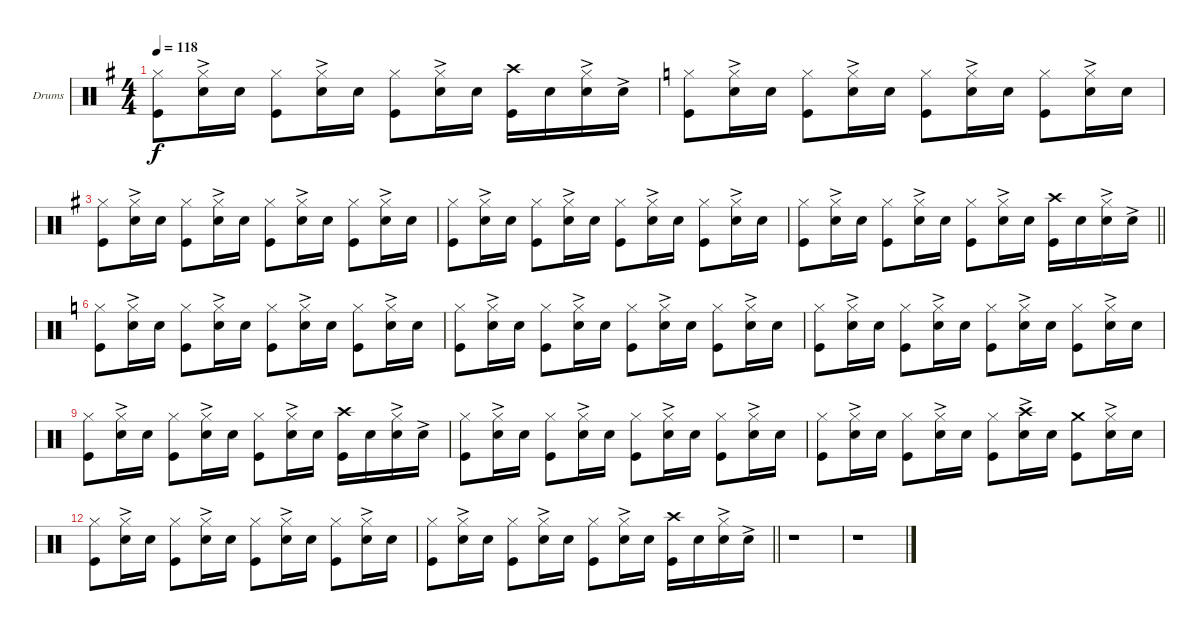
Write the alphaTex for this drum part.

\bracketExtendMode nobrackets
\firstSystemTrackNameOrientation horizontal
\otherSystemsTrackNameOrientation horizontal
\defaultBarNumberDisplay FirstOfSystem
\track ("Drumkit" "Drums") {instrument percussion}
\staff {score}
\articulation defaults
\ts (4 4)
\tempo 118
\clef neutral
\scale
0.309392
\ks g
("Kick (hit)" "Hi-Hat (closed)").8{dy f} ("Snare (hit) 2"{ac} "Hi-Hat (closed)").16 "Snare (hit) 2".16 ("Kick (hit)" "Hi-Hat (closed)").8 ("Snare (hit) 2"{ac} "Hi-Hat (closed)").16 "Snare (hit) 2".16 ("Kick (hit)" "Hi-Hat (closed)").8 ("Snare (hit) 2"{ac} "Hi-Hat (closed)").16 "Snare (hit) 2".16 ("Kick (hit)" "Crash high (hit)").16 "Snare (hit) 2".16 ("Snare (hit) 2"{ac} "Hi-Hat (closed)").16 "Snare (hit) 2"{ac}.16 |
\scale
0.34555
\ks c
("Kick (hit)" "Hi-Hat (closed)").8 ("Snare (hit) 2"{ac} "Hi-Hat (closed)").16 "Snare (hit) 2".16 ("Kick (hit)" "Hi-Hat (closed)").8 ("Snare (hit) 2"{ac} "Hi-Hat (closed)").16 "Snare (hit) 2".16 ("Kick (hit)" "Hi-Hat (closed)").8 ("Snare (hit) 2"{ac} "Hi-Hat (closed)").16 "Snare (hit) 2".16 ("Kick (hit)" "Hi-Hat (closed)").8 ("Snare (hit) 2"{ac} "Hi-Hat (closed)").16 "Snare (hit) 2".16 |
\scale
0.361257
\ks g
("Kick (hit)" "Hi-Hat (closed)").8 ("Snare (hit) 2"{ac} "Hi-Hat (closed)").16 "Snare (hit) 2".16 ("Kick (hit)" "Hi-Hat (closed)").8 ("Snare (hit) 2"{ac} "Hi-Hat (closed)").16 "Snare (hit) 2".16 ("Kick (hit)" "Hi-Hat (closed)").8 ("Snare (hit) 2"{ac} "Hi-Hat (closed)").16 "Snare (hit) 2".16 ("Kick (hit)" "Hi-Hat (closed)").8 ("Snare (hit) 2"{ac} "Hi-Hat (closed)").16 "Snare (hit) 2".16 |
\scale
0.293194 ("Kick (hit)" "Hi-Hat (closed)").8 ("Snare (hit) 2"{ac} "Hi-Hat (closed)").16 "Snare (hit) 2".16 ("Kick (hit)" "Hi-Hat (closed)").8 ("Snare (hit) 2"{ac} "Hi-Hat (closed)").16 "Snare (hit) 2".16 ("Kick (hit)" "Hi-Hat (closed)").8 ("Snare (hit) 2"{ac} "Hi-Hat (closed)").16 "Snare (hit) 2".16 ("Kick (hit)" "Hi-Hat (closed)").8 ("Snare (hit) 2"{ac} "Hi-Hat (closed)").16 "Snare (hit) 2".16 |
\scale
0.314607
\barLineRight lightlight
("Kick (hit)" "Hi-Hat (closed)").8 ("Snare (hit) 2"{ac} "Hi-Hat (closed)").16 "Snare (hit) 2".16 ("Kick (hit)" "Hi-Hat (closed)").8 ("Snare (hit) 2"{ac} "Hi-Hat (closed)").16 "Snare (hit) 2".16 ("Kick (hit)" "Hi-Hat (closed)").8 ("Snare (hit) 2"{ac} "Hi-Hat (closed)").16 "Snare (hit) 2".16 ("Kick (hit)" "Crash high (hit)").16 "Snare (hit) 2".16 ("Snare (hit) 2"{ac} "Hi-Hat (closed)").16 "Snare (hit) 2"{ac}.16 |
\scale
0.370787
\ks c
("Kick (hit)" "Hi-Hat (closed)").8 ("Snare (hit) 2"{ac} "Hi-Hat (closed)").16 "Snare (hit) 2".16 ("Kick (hit)" "Hi-Hat (closed)").8 ("Snare (hit) 2"{ac} "Hi-Hat (closed)").16 "Snare (hit) 2".16 ("Kick (hit)" "Hi-Hat (closed)").8 ("Snare (hit) 2"{ac} "Hi-Hat (closed)").16 "Snare (hit) 2".16 ("Kick (hit)" "Hi-Hat (closed)").8 ("Snare (hit) 2"{ac} "Hi-Hat (closed)").16 "Snare (hit) 2".16 |
\scale
0.314607 ("Kick (hit)" "Hi-Hat (closed)").8 ("Snare (hit) 2"{ac} "Hi-Hat (closed)").16 "Snare (hit) 2".16 ("Kick (hit)" "Hi-Hat (closed)").8 ("Snare (hit) 2"{ac} "Hi-Hat (closed)").16 "Snare (hit) 2".16 ("Kick (hit)" "Hi-Hat (closed)").8 ("Snare (hit) 2"{ac} "Hi-Hat (closed)").16 "Snare (hit) 2".16 ("Kick (hit)" "Hi-Hat (closed)").8 ("Snare (hit) 2"{ac} "Hi-Hat (closed)").16 "Snare (hit) 2".16 |
\scale
0.333333 ("Kick (hit)" "Hi-Hat (closed)").8 ("Snare (hit) 2"{ac} "Hi-Hat (closed)").16 "Snare (hit) 2".16 ("Kick (hit)" "Hi-Hat (closed)").8 ("Snare (hit) 2"{ac} "Hi-Hat (closed)").16 "Snare (hit) 2".16 ("Kick (hit)" "Hi-Hat (closed)").8 ("Snare (hit) 2"{ac} "Hi-Hat (closed)").16 "Snare (hit) 2".16 ("Kick (hit)" "Hi-Hat (closed)").8 ("Snare (hit) 2"{ac} "Hi-Hat (closed)").16 "Snare (hit) 2".16 |
\scale
0.333333 ("Kick (hit)" "Hi-Hat (closed)").8 ("Snare (hit) 2"{ac} "Hi-Hat (closed)").16 "Snare (hit) 2".16 ("Kick (hit)" "Hi-Hat (closed)").8 ("Snare (hit) 2"{ac} "Hi-Hat (closed)").16 "Snare (hit) 2".16 ("Kick (hit)" "Hi-Hat (closed)").8 ("Snare (hit) 2"{ac} "Hi-Hat (closed)").16 "Snare (hit) 2".16 ("Kick (hit)" "Crash high (hit)").16 "Snare (hit) 2".16 ("Snare (hit) 2"{ac} "Hi-Hat (closed)").16 "Snare (hit) 2"{ac}.16 |
\scale
0.333333 ("Kick (hit)" "Hi-Hat (closed)").8 ("Snare (hit) 2"{ac} "Hi-Hat (closed)").16 "Snare (hit) 2".16 ("Kick (hit)" "Hi-Hat (closed)").8 ("Snare (hit) 2"{ac} "Hi-Hat (closed)").16 "Snare (hit) 2".16 ("Kick (hit)" "Hi-Hat (closed)").8 ("Snare (hit) 2"{ac} "Hi-Hat (closed)").16 "Snare (hit) 2".16 ("Kick (hit)" "Hi-Hat (closed)").8 ("Snare (hit) 2"{ac} "Hi-Hat (closed)").16 "Snare (hit) 2".16 |
\scale
0.333333 ("Kick (hit)" "Hi-Hat (closed)").8 ("Snare (hit) 2"{ac} "Hi-Hat (closed)").16 "Snare (hit) 2".16 ("Kick (hit)" "Hi-Hat (closed)").8 ("Snare (hit) 2"{ac} "Hi-Hat (closed)").16 "Snare (hit) 2".16 ("Kick (hit)" "Hi-Hat (closed)").8 ("Snare (hit) 2"{ac} "Crash high (hit)"{ac}).16 "Snare (hit) 2".16 ("Kick (hit)" "Crash medium (hit)").8 ("Snare (hit) 2"{ac} "Hi-Hat (closed)").16 "Snare (hit) 2".16 |
\scale
0.333333 ("Kick (hit)" "Hi-Hat (closed)").8 ("Snare (hit) 2"{ac} "Hi-Hat (closed)").16 "Snare (hit) 2".16 ("Kick (hit)" "Hi-Hat (closed)").8 ("Snare (hit) 2"{ac} "Hi-Hat (closed)").16 "Snare (hit) 2".16 ("Kick (hit)" "Hi-Hat (closed)").8 ("Snare (hit) 2"{ac} "Hi-Hat (closed)").16 "Snare (hit) 2".16 ("Kick (hit)" "Hi-Hat (closed)").8 ("Snare (hit) 2"{ac} "Hi-Hat (closed)").16 "Snare (hit) 2".16 |
\scale
0.333333
\barLineRight lightlight
("Kick (hit)" "Hi-Hat (closed)").8 ("Snare (hit) 2"{ac} "Hi-Hat (closed)").16 "Snare (hit) 2".16 ("Kick (hit)" "Hi-Hat (closed)").8 ("Snare (hit) 2"{ac} "Hi-Hat (closed)").16 "Snare (hit) 2".16 ("Kick (hit)" "Hi-Hat (closed)").8 ("Snare (hit) 2"{ac} "Hi-Hat (closed)").16 "Snare (hit) 2".16 ("Kick (hit)" "Crash high (hit)").16 "Snare (hit) 2".16 ("Snare (hit) 2"{ac} "Hi-Hat (closed)").16 "Snare (hit) 2"{ac}.16 |
r.1 |
r.1
